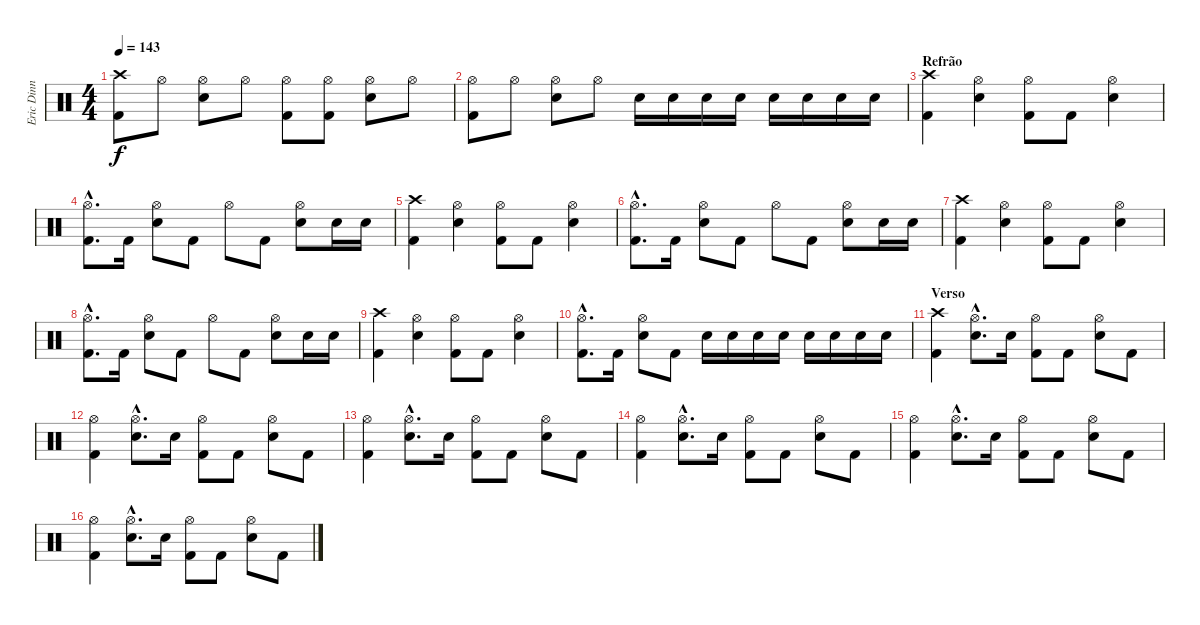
\track ("Eric Dinn" "Eric Dinn") {instrument percussion}
\staff {score}
\articulation defaults
\ts (4 4)
\tempo 143
\clef neutral
\ks c
("Crash high (hit)" "Kick (hit) 2").8{dy f} "Hi-Hat (open)".8 ("Hi-Hat (open)" "Snare (hit) 2").8 "Hi-Hat (open)".8 ("Hi-Hat (open)" "Kick (hit) 2").8 ("Hi-Hat (open)" "Kick (hit) 2").8 ("Hi-Hat (open)" "Snare (hit) 2").8 "Hi-Hat (open)".8 |
("Hi-Hat (open)" "Kick (hit) 2").8 "Hi-Hat (open)".8 ("Hi-Hat (open)" "Snare (hit) 2").8 "Hi-Hat (open)".8 "Snare (hit) 2".16 "Snare (hit) 2".16 "Snare (hit) 2".16 "Snare (hit) 2".16 "Snare (hit) 2".16 "Snare (hit) 2".16 "Snare (hit) 2".16 "Snare (hit) 2".16 |
\section ("" "Refrão")
("Crash high (hit)" "Kick (hit) 2").4 ("Hi-Hat (open)" "Snare (hit) 2").4 ("Hi-Hat (open)" "Kick (hit) 2").8 "Kick (hit) 2".8 ("Hi-Hat (open)" "Snare (hit) 2").4 |
("Hi-Hat (open)"{hac} "Kick (hit) 2"{hac}).8{d} "Kick (hit) 2".16 ("Hi-Hat (open)" "Snare (hit) 2").8 "Kick (hit) 2".8 "Hi-Hat (open)".8 "Kick (hit) 2".8 ("Hi-Hat (open)" "Snare (hit) 2").8 "Snare (hit) 2".16 "Snare (hit) 2".16 |
("Crash high (hit)" "Kick (hit) 2").4 ("Hi-Hat (open)" "Snare (hit) 2").4 ("Hi-Hat (open)" "Kick (hit) 2").8 "Kick (hit) 2".8 ("Hi-Hat (open)" "Snare (hit) 2").4 |
("Hi-Hat (open)"{hac} "Kick (hit) 2"{hac}).8{d} "Kick (hit) 2".16 ("Hi-Hat (open)" "Snare (hit) 2").8 "Kick (hit) 2".8 "Hi-Hat (open)".8 "Kick (hit) 2".8 ("Hi-Hat (open)" "Snare (hit) 2").8 "Snare (hit) 2".16 "Snare (hit) 2".16 |
("Crash high (hit)" "Kick (hit) 2").4 ("Hi-Hat (open)" "Snare (hit) 2").4 ("Hi-Hat (open)" "Kick (hit) 2").8 "Kick (hit) 2".8 ("Hi-Hat (open)" "Snare (hit) 2").4 |
("Hi-Hat (open)"{hac} "Kick (hit) 2"{hac}).8{d} "Kick (hit) 2".16 ("Hi-Hat (open)" "Snare (hit) 2").8 "Kick (hit) 2".8 "Hi-Hat (open)".8 "Kick (hit) 2".8 ("Hi-Hat (open)" "Snare (hit) 2").8 "Snare (hit) 2".16 "Snare (hit) 2".16 |
("Crash high (hit)" "Kick (hit) 2").4 ("Hi-Hat (open)" "Snare (hit) 2").4 ("Hi-Hat (open)" "Kick (hit) 2").8 "Kick (hit) 2".8 ("Hi-Hat (open)" "Snare (hit) 2").4 |
("Hi-Hat (open)"{hac} "Kick (hit) 2"{hac}).8{d} "Kick (hit) 2".16 ("Hi-Hat (open)" "Snare (hit) 2").8 "Kick (hit) 2".8 "Snare (hit) 2".16 "Snare (hit) 2".16 "Snare (hit) 2".16 "Snare (hit) 2".16 "Snare (hit) 2".16 "Snare (hit) 2".16 "Snare (hit) 2".16 "Snare (hit) 2".16 |
\section ("" "Verso")
("Crash high (hit)" "Kick (hit) 2").4 ("Hi-Hat (open)"{hac} "Snare (hit) 2"{hac}).8{d} "Snare (hit) 2".16 ("Hi-Hat (open)" "Kick (hit) 2").8 "Kick (hit) 2".8 ("Hi-Hat (open)" "Snare (hit) 2").8 "Kick (hit) 2".8 |
("Hi-Hat (open)" "Kick (hit) 2").4 ("Hi-Hat (open)"{hac} "Snare (hit) 2"{hac}).8{d} "Snare (hit) 2".16 ("Hi-Hat (open)" "Kick (hit) 2").8 "Kick (hit) 2".8 ("Hi-Hat (open)" "Snare (hit) 2").8 "Kick (hit) 2".8 |
("Hi-Hat (open)" "Kick (hit) 2").4 ("Hi-Hat (open)"{hac} "Snare (hit) 2"{hac}).8{d} "Snare (hit) 2".16 ("Hi-Hat (open)" "Kick (hit) 2").8 "Kick (hit) 2".8 ("Hi-Hat (open)" "Snare (hit) 2").8 "Kick (hit) 2".8 |
("Hi-Hat (open)" "Kick (hit) 2").4 ("Hi-Hat (open)"{hac} "Snare (hit) 2"{hac}).8{d} "Snare (hit) 2".16 ("Hi-Hat (open)" "Kick (hit) 2").8 "Kick (hit) 2".8 ("Hi-Hat (open)" "Snare (hit) 2").8 "Kick (hit) 2".8 |
("Hi-Hat (open)" "Kick (hit) 2").4 ("Hi-Hat (open)"{hac} "Snare (hit) 2"{hac}).8{d} "Snare (hit) 2".16 ("Hi-Hat (open)" "Kick (hit) 2").8 "Kick (hit) 2".8 ("Hi-Hat (open)" "Snare (hit) 2").8 "Kick (hit) 2".8 |
("Hi-Hat (open)" "Kick (hit) 2").4 ("Hi-Hat (open)"{hac} "Snare (hit) 2"{hac}).8{d} "Snare (hit) 2".16 ("Hi-Hat (open)" "Kick (hit) 2").8 "Kick (hit) 2".8 ("Hi-Hat (open)" "Snare (hit) 2").8 "Kick (hit) 2".8
